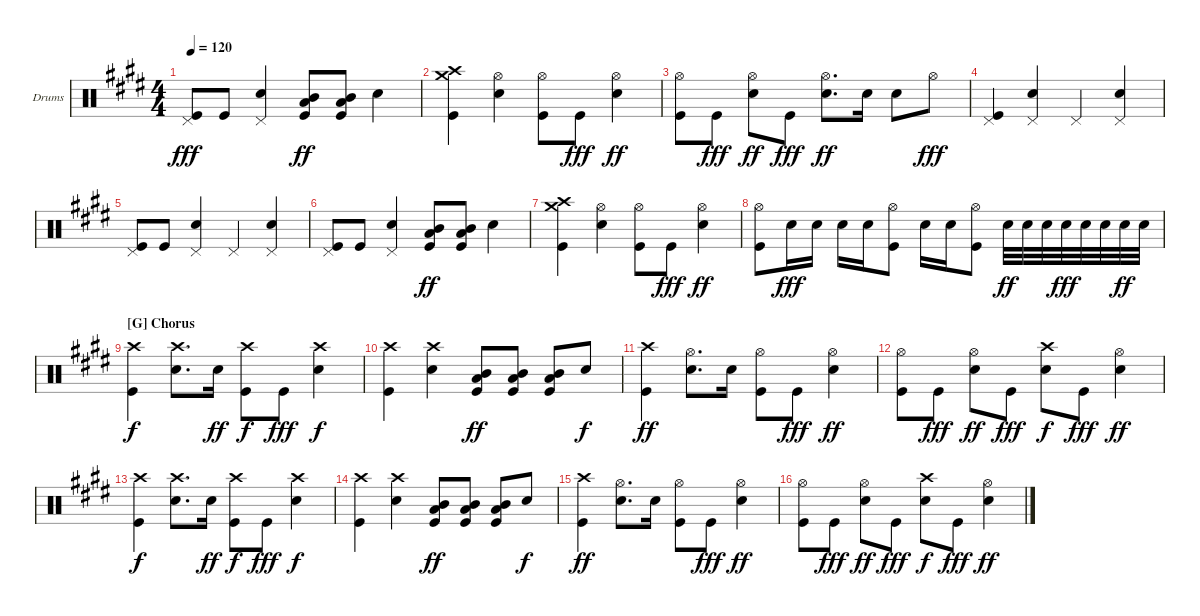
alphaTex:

\defaultSystemsLayout 4
\bracketExtendMode groupsimilarinstruments
\firstSystemTrackNameOrientation horizontal
\otherSystemsTrackNameOrientation horizontal
\track ("Drums" "Drums") {instrument percussion}
\staff {score}
\articulation defaults
\ts (4 4)
\tempo 120
\clef neutral
\scale
1.06557
\ks e
("Pedal Hi-Hat (hit)" "Kick (hit)").8{dy fff} "Kick (hit)".8 ("Pedal Hi-Hat (hit)" "Snare (hit) 2").4 ("Mid Tom (hit)" "Low Tom (hit)" "Kick (hit)").8{dy ff} ("Mid Tom (hit)" "Low Tom (hit)" "Kick (hit)").8 "Snare (hit) 2".4 |
\scale
0.934426 ("Crash high (hit)" "Crash medium (hit)" "Kick (hit)").4 ("Hi-Hat (open)" "Snare (hit) 2").4 ("Hi-Hat (open)" "Kick (hit)").8 "Kick (hit)".8{dy fff} ("Hi-Hat (open)" "Snare (hit) 2").4{dy ff} |
\scale
1.06557 ("Hi-Hat (open)" "Kick (hit)").8 "Kick (hit)".8{dy fff} ("Hi-Hat (open)" "Snare (hit) 2").8{dy ff} "Kick (hit)".8{dy fff} ("Hi-Hat (open)" "Snare (hit) 2").8{d dy ff} "Snare (hit) 2".16 "Snare (hit) 2".8 "Hi-Hat (open)".8{dy fff} |
\scale
0.934426 ("Pedal Hi-Hat (hit)" "Kick (hit)").4 ("Pedal Hi-Hat (hit)" "Snare (hit) 2").4 "Pedal Hi-Hat (hit)".4 ("Pedal Hi-Hat (hit)" "Snare (hit) 2").4 |
\scale
1.06557 ("Pedal Hi-Hat (hit)" "Kick (hit)").8 "Kick (hit)".8 ("Pedal Hi-Hat (hit)" "Snare (hit) 2").4 "Pedal Hi-Hat (hit)".4 ("Pedal Hi-Hat (hit)" "Snare (hit) 2").4 |
\scale
0.934426 ("Pedal Hi-Hat (hit)" "Kick (hit)").8 "Kick (hit)".8 ("Pedal Hi-Hat (hit)" "Snare (hit) 2").4 ("Mid Tom (hit)" "Low Tom (hit)" "Kick (hit)").8{dy ff} ("Mid Tom (hit)" "Low Tom (hit)" "Kick (hit)").8 "Snare (hit) 2".4 |
\scale
1.06557 ("Crash high (hit)" "Crash medium (hit)" "Kick (hit)").4 ("Hi-Hat (open)" "Snare (hit) 2").4 ("Hi-Hat (open)" "Kick (hit)").8 "Kick (hit)".8{dy fff} ("Hi-Hat (open)" "Snare (hit) 2").4{dy ff} |
\scale
0.934426 ("Hi-Hat (open)" "Kick (hit)").8 "Snare (hit) 2".16{dy fff} "Snare (hit) 2".16 "Snare (hit) 2".16 "Snare (hit) 2".16 ("Hi-Hat (open)" "Kick (hit)").8 "Snare (hit) 2".16 "Snare (hit) 2".16 ("Hi-Hat (open)" "Kick (hit)").8 "Snare (hit) 2".32{dy ff} "Snare (hit) 2".32 "Snare (hit) 2".32 "Snare (hit) 2".32{dy fff} "Snare (hit) 2".32 "Snare (hit) 2".32 "Snare (hit) 2".32{dy ff} "Snare (hit) 2".32 |
\section ("G" "Chorus")
\scale
1.06557 ("Crash high (hit)" "Kick (hit)").4{dy f} ("Crash high (hit)" "Snare (hit) 2").8{d} "Snare (hit) 2".16{dy ff} ("Crash high (hit)" "Kick (hit)").8{dy f} "Kick (hit)".8{dy fff} ("Crash high (hit)" "Snare (hit) 2").4{dy f} |
\scale
0.934426 ("Crash high (hit)" "Kick (hit)").4 ("Crash high (hit)" "Snare (hit) 2").4 ("Mid Tom (hit)" "Low Tom (hit)" "Kick (hit)").8{dy ff} ("Mid Tom (hit)" "Low Tom (hit)" "Kick (hit)").8 ("Mid Tom (hit)" "Low Tom (hit)" "Kick (hit)").8 "Snare (hit) 2".8{dy f} |
\scale
1.06557 ("Crash high (hit)" "Kick (hit)").4{dy ff} ("Hi-Hat (open)" "Snare (hit) 2").8{d} "Snare (hit) 2".16 ("Hi-Hat (open)" "Kick (hit)").8 "Kick (hit)".8{dy fff} ("Hi-Hat (open)" "Snare (hit) 2").4{dy ff} |
\scale
0.934426 ("Hi-Hat (open)" "Kick (hit)").8 "Kick (hit)".8{dy fff} ("Hi-Hat (open)" "Snare (hit) 2").8{dy ff} "Kick (hit)".8{dy fff} ("Crash high (hit)" "Snare (hit) 2").8{dy f} "Kick (hit)".8{dy fff} ("Hi-Hat (open)" "Snare (hit) 2").4{dy ff} |
\scale
1.06557 ("Crash high (hit)" "Kick (hit)").4{dy f} ("Crash high (hit)" "Snare (hit) 2").8{d} "Snare (hit) 2".16{dy ff} ("Crash high (hit)" "Kick (hit)").8{dy f} "Kick (hit)".8{dy fff} ("Crash high (hit)" "Snare (hit) 2").4{dy f} |
\scale
0.934426 ("Crash high (hit)" "Kick (hit)").4 ("Crash high (hit)" "Snare (hit) 2").4 ("Mid Tom (hit)" "Low Tom (hit)" "Kick (hit)").8{dy ff} ("Mid Tom (hit)" "Low Tom (hit)" "Kick (hit)").8 ("Mid Tom (hit)" "Low Tom (hit)" "Kick (hit)").8 "Snare (hit) 2".8{dy f} |
\scale
1.06557 ("Crash high (hit)" "Kick (hit)").4{dy ff} ("Hi-Hat (open)" "Snare (hit) 2").8{d} "Snare (hit) 2".16 ("Hi-Hat (open)" "Kick (hit)").8 "Kick (hit)".8{dy fff} ("Hi-Hat (open)" "Snare (hit) 2").4{dy ff} |
\scale
0.934426 ("Hi-Hat (open)" "Kick (hit)").8 "Kick (hit)".8{dy fff} ("Hi-Hat (open)" "Snare (hit) 2").8{dy ff} "Kick (hit)".8{dy fff} ("Crash high (hit)" "Snare (hit) 2").8{dy f} "Kick (hit)".8{dy fff} ("Hi-Hat (open)" "Snare (hit) 2").4{dy ff}
